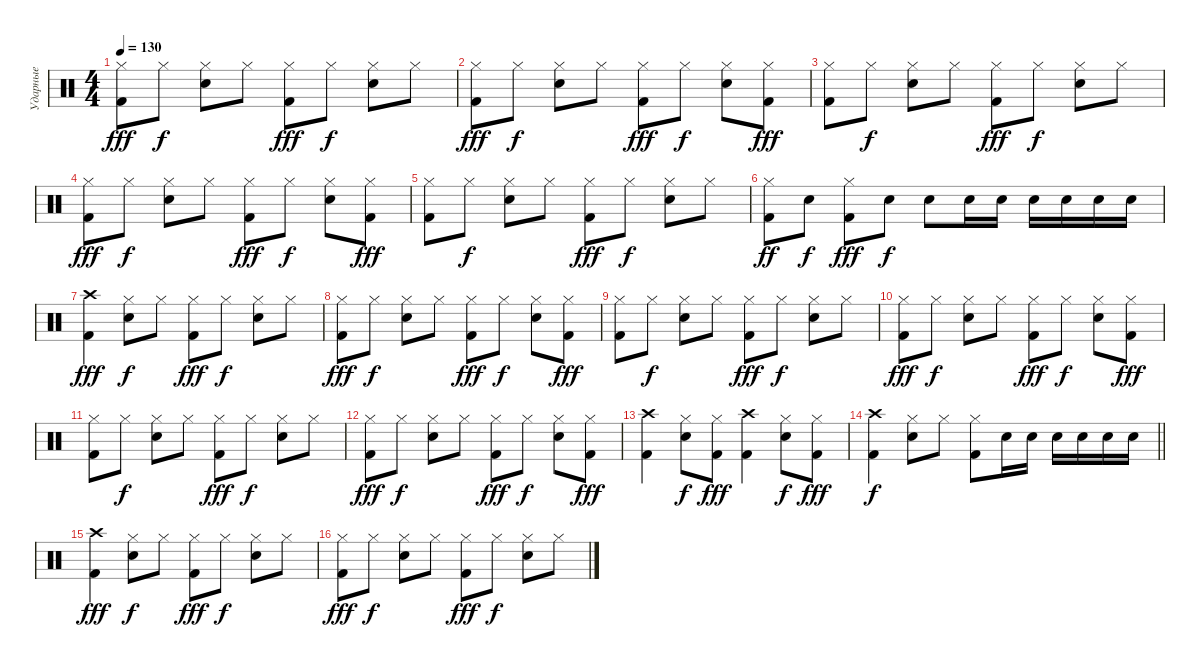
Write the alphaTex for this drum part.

\track ("Ударные" "Ударные") {instrument percussion}
\staff {score}
\articulation defaults
\ts (4 4)
\tempo 130
\clef neutral
\ks c
("Kick (hit) 2" "Hi-Hat (closed)").8{dy fff} "Hi-Hat (closed)".8{dy f} ("Snare (hit) 2" "Hi-Hat (closed)").8 "Hi-Hat (closed)".8 ("Kick (hit) 2" "Hi-Hat (closed)").8{dy fff} "Hi-Hat (closed)".8{dy f} ("Snare (hit) 2" "Hi-Hat (closed)").8 "Hi-Hat (closed)".8 |
("Kick (hit) 2" "Hi-Hat (closed)").8{dy fff} "Hi-Hat (closed)".8{dy f} ("Snare (hit) 2" "Hi-Hat (closed)").8 "Hi-Hat (closed)".8 ("Kick (hit) 2" "Hi-Hat (closed)").8{dy fff} "Hi-Hat (closed)".8{dy f} ("Snare (hit) 2" "Hi-Hat (closed)").8 ("Kick (hit) 2" "Hi-Hat (closed)").8{dy fff} |
("Kick (hit) 2" "Hi-Hat (closed)").8 "Hi-Hat (closed)".8{dy f} ("Snare (hit) 2" "Hi-Hat (closed)").8 "Hi-Hat (closed)".8 ("Kick (hit) 2" "Hi-Hat (closed)").8{dy fff} "Hi-Hat (closed)".8{dy f} ("Snare (hit) 2" "Hi-Hat (closed)").8 "Hi-Hat (closed)".8 |
("Kick (hit) 2" "Hi-Hat (closed)").8{dy fff} "Hi-Hat (closed)".8{dy f} ("Snare (hit) 2" "Hi-Hat (closed)").8 "Hi-Hat (closed)".8 ("Kick (hit) 2" "Hi-Hat (closed)").8{dy fff} "Hi-Hat (closed)".8{dy f} ("Snare (hit) 2" "Hi-Hat (closed)").8 ("Kick (hit) 2" "Hi-Hat (closed)").8{dy fff} |
("Kick (hit) 2" "Hi-Hat (closed)").8 "Hi-Hat (closed)".8{dy f} ("Snare (hit) 2" "Hi-Hat (closed)").8 "Hi-Hat (closed)".8 ("Kick (hit) 2" "Hi-Hat (closed)").8{dy fff} "Hi-Hat (closed)".8{dy f} ("Snare (hit) 2" "Hi-Hat (closed)").8 "Hi-Hat (closed)".8 |
("Kick (hit) 2" "Hi-Hat (closed)").8{dy ff} "Snare (hit) 2".8{dy f} ("Kick (hit) 2" "Hi-Hat (closed)").8{dy fff} "Snare (hit) 2".8{dy f} "Snare (hit) 2".8 "Snare (hit) 2".16 "Snare (hit) 2".16 "Snare (hit) 2".16 "Snare (hit) 2".16 "Snare (hit) 2".16 "Snare (hit) 2".16 |
("Kick (hit) 2" "Crash high (hit)").4{dy fff} ("Snare (hit) 2" "Hi-Hat (closed)").8{dy f} "Hi-Hat (closed)".8 ("Kick (hit) 2" "Hi-Hat (closed)").8{dy fff} "Hi-Hat (closed)".8{dy f} ("Snare (hit) 2" "Hi-Hat (closed)").8 "Hi-Hat (closed)".8 |
("Kick (hit) 2" "Hi-Hat (closed)").8{dy fff} "Hi-Hat (closed)".8{dy f} ("Snare (hit) 2" "Hi-Hat (closed)").8 "Hi-Hat (closed)".8 ("Kick (hit) 2" "Hi-Hat (closed)").8{dy fff} "Hi-Hat (closed)".8{dy f} ("Snare (hit) 2" "Hi-Hat (closed)").8 ("Kick (hit) 2" "Hi-Hat (closed)").8{dy fff} |
("Kick (hit) 2" "Hi-Hat (closed)").8 "Hi-Hat (closed)".8{dy f} ("Snare (hit) 2" "Hi-Hat (closed)").8 "Hi-Hat (closed)".8 ("Kick (hit) 2" "Hi-Hat (closed)").8{dy fff} "Hi-Hat (closed)".8{dy f} ("Snare (hit) 2" "Hi-Hat (closed)").8 "Hi-Hat (closed)".8 |
("Kick (hit) 2" "Hi-Hat (closed)").8{dy fff} "Hi-Hat (closed)".8{dy f} ("Snare (hit) 2" "Hi-Hat (closed)").8 "Hi-Hat (closed)".8 ("Kick (hit) 2" "Hi-Hat (closed)").8{dy fff} "Hi-Hat (closed)".8{dy f} ("Snare (hit) 2" "Hi-Hat (closed)").8 ("Kick (hit) 2" "Hi-Hat (closed)").8{dy fff} |
("Kick (hit) 2" "Hi-Hat (closed)").8 "Hi-Hat (closed)".8{dy f} ("Snare (hit) 2" "Hi-Hat (closed)").8 "Hi-Hat (closed)".8 ("Kick (hit) 2" "Hi-Hat (closed)").8{dy fff} "Hi-Hat (closed)".8{dy f} ("Snare (hit) 2" "Hi-Hat (closed)").8 "Hi-Hat (closed)".8 |
("Kick (hit) 2" "Hi-Hat (closed)").8{dy fff} "Hi-Hat (closed)".8{dy f} ("Snare (hit) 2" "Hi-Hat (closed)").8 "Hi-Hat (closed)".8 ("Kick (hit) 2" "Hi-Hat (closed)").8{dy fff} "Hi-Hat (closed)".8{dy f} ("Snare (hit) 2" "Hi-Hat (closed)").8 ("Kick (hit) 2" "Hi-Hat (closed)").8{dy fff} |
("Kick (hit) 2" "Crash high (hit)").4 ("Snare (hit) 2" "Hi-Hat (closed)").8{dy f} ("Kick (hit) 2" "Hi-Hat (closed)").8{dy fff} ("Kick (hit) 2" "Crash high (hit)").4 ("Snare (hit) 2" "Hi-Hat (closed)").8{dy f} ("Kick (hit) 2" "Hi-Hat (closed)").8{dy fff} |
\barLineRight lightlight
("Kick (hit) 2" "Crash high (hit)").4{dy f} ("Snare (hit) 2" "Hi-Hat (closed)").8 "Hi-Hat (closed)".8 ("Kick (hit) 2" "Hi-Hat (closed)").8 "Snare (hit) 2".16 "Snare (hit) 2".16 "Snare (hit) 2".16 "Snare (hit) 2".16 "Snare (hit) 2".16 "Snare (hit) 2".16 |
("Kick (hit) 2" "Crash high (hit)").4{dy fff} ("Snare (hit) 2" "Hi-Hat (closed)").8{dy f} "Hi-Hat (closed)".8 ("Kick (hit) 2" "Hi-Hat (closed)").8{dy fff} "Hi-Hat (closed)".8{dy f} ("Snare (hit) 2" "Hi-Hat (closed)").8 "Hi-Hat (closed)".8 |
("Kick (hit) 2" "Hi-Hat (closed)").8{dy fff} "Hi-Hat (closed)".8{dy f} ("Snare (hit) 2" "Hi-Hat (closed)").8 "Hi-Hat (closed)".8 ("Kick (hit) 2" "Hi-Hat (closed)").8{dy fff} "Hi-Hat (closed)".8{dy f} ("Snare (hit) 2" "Hi-Hat (closed)").8 "Hi-Hat (closed)".8
